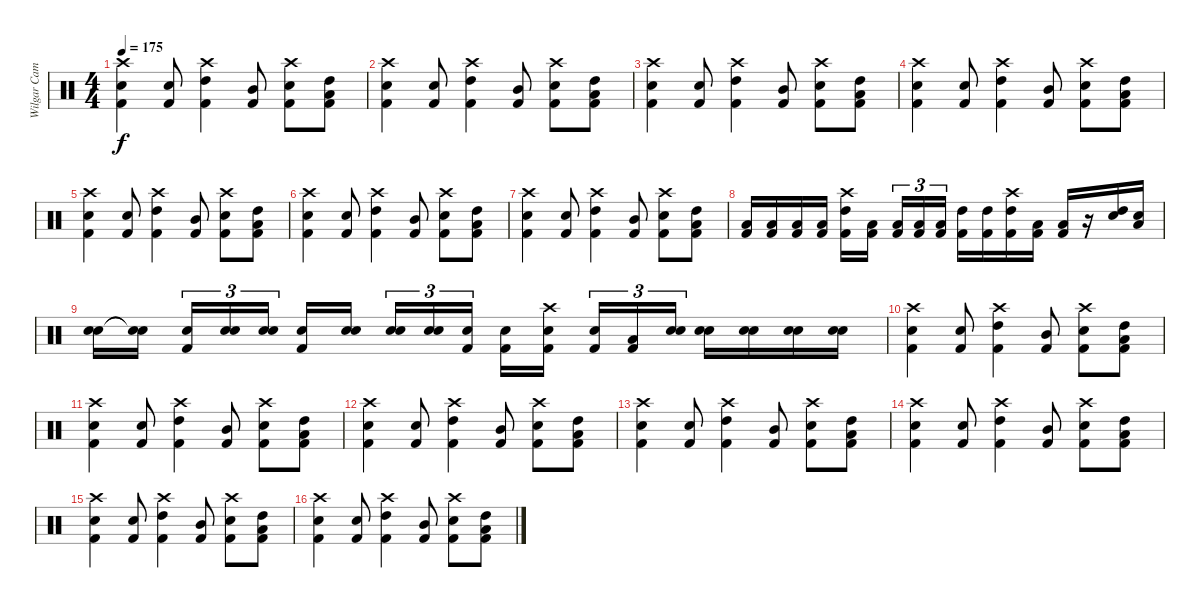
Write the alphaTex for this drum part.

\track ("Wilgar Campbell" "Wilgar Cam") {instrument percussion}
\staff {score}
\articulation defaults
\ts (4 4)
\tempo 175
\clef neutral
\ks c
("Crash high (hit)" "Electric Snare (hit)" "Kick (hit) 2").4{dy f} ("Snare (hit) 2" "Kick (hit) 2").8 ("Crash high (hit)" "High Tom (hit)" "Kick (hit) 2").4 ("Mid Tom (hit)" "Kick (hit) 2").8 ("Crash high (hit)" "Electric Snare (hit)" "Kick (hit) 2").8 ("High Tom (hit)" "Kick (hit) 2" "Low Tom (hit)").8 |
("Crash high (hit)" "Electric Snare (hit)" "Kick (hit) 2").4 ("Snare (hit) 2" "Kick (hit) 2").8 ("Crash high (hit)" "High Tom (hit)" "Kick (hit) 2").4 ("Mid Tom (hit)" "Kick (hit) 2").8 ("Crash high (hit)" "Electric Snare (hit)" "Kick (hit) 2").8 ("High Tom (hit)" "Kick (hit) 2" "Low Tom (hit)").8 |
("Crash high (hit)" "Electric Snare (hit)" "Kick (hit) 2").4 ("Snare (hit) 2" "Kick (hit) 2").8 ("Crash high (hit)" "High Tom (hit)" "Kick (hit) 2").4 ("Mid Tom (hit)" "Kick (hit) 2").8 ("Crash high (hit)" "Electric Snare (hit)" "Kick (hit) 2").8 ("High Tom (hit)" "Kick (hit) 2" "Low Tom (hit)").8 |
("Crash high (hit)" "Electric Snare (hit)" "Kick (hit) 2").4 ("Snare (hit) 2" "Kick (hit) 2").8 ("Crash high (hit)" "High Tom (hit)" "Kick (hit) 2").4 ("Mid Tom (hit)" "Kick (hit) 2").8 ("Crash high (hit)" "Electric Snare (hit)" "Kick (hit) 2").8 ("High Tom (hit)" "Kick (hit) 2" "Low Tom (hit)").8 |
("Crash high (hit)" "Electric Snare (hit)" "Kick (hit) 2").4 ("Snare (hit) 2" "Kick (hit) 2").8 ("Crash high (hit)" "High Tom (hit)" "Kick (hit) 2").4 ("Mid Tom (hit)" "Kick (hit) 2").8 ("Crash high (hit)" "Electric Snare (hit)" "Kick (hit) 2").8 ("High Tom (hit)" "Kick (hit) 2" "Low Tom (hit)").8 |
("Crash high (hit)" "Electric Snare (hit)" "Kick (hit) 2").4 ("Snare (hit) 2" "Kick (hit) 2").8 ("Crash high (hit)" "High Tom (hit)" "Kick (hit) 2").4 ("Mid Tom (hit)" "Kick (hit) 2").8 ("Crash high (hit)" "Electric Snare (hit)" "Kick (hit) 2").8 ("High Tom (hit)" "Kick (hit) 2" "Low Tom (hit)").8 |
("Crash high (hit)" "Electric Snare (hit)" "Kick (hit) 2").4 ("Snare (hit) 2" "Kick (hit) 2").8 ("Crash high (hit)" "High Tom (hit)" "Kick (hit) 2").4 ("Mid Tom (hit)" "Kick (hit) 2").8 ("Crash high (hit)" "Electric Snare (hit)" "Kick (hit) 2").8 ("High Tom (hit)" "Kick (hit) 2" "Low Tom (hit)").8 |
("Low Tom (hit)" "Kick (hit) 2").16 ("Low Tom (hit)" "Kick (hit) 2").16 ("Low Tom (hit)" "Kick (hit) 2").16 ("Low Tom (hit)" "Kick (hit) 2").16 ("Crash high (hit)" "High Tom (hit)" "Kick (hit) 2").16 ("Low Tom (hit)" "Kick (hit) 2").16 ("Low Tom (hit)" "Kick (hit) 2").16{tu (3 2)} ("Low Tom (hit)" "Kick (hit) 2").16{tu (3 2)} ("Low Tom (hit)" "Kick (hit) 2").16{tu (3 2)} ("High Tom (hit)" "Kick (hit) 2").16 ("High Tom (hit)" "Kick (hit) 2").16 ("Crash high (hit)" "High Tom (hit)" "Kick (hit) 2").16 ("Low Tom (hit)" "Kick (hit) 2").16 ("Low Tom (hit)" "Kick (hit) 2").16 r.16 ("High Tom (hit)" "Snare (hit) 2").16 ("Low Tom (hit)" "Snare (hit) 2").16 |
("Electric Snare (hit)" "Electric Snare (hit)").16 ("Electric Snare (hit)"{t} "Electric Snare (hit)"{t}).16 ("Snare (hit) 2" "Kick (hit) 2").16{tu (3 2)} ("Snare (hit) 2" "Electric Snare (hit)").16{tu (3 2)} ("Snare (hit) 2" "Electric Snare (hit)").16{tu (3 2)} ("Snare (hit) 2" "Kick (hit) 2").16 ("Snare (hit) 2" "Snare (hit) 2").16 ("Snare (hit) 2" "Snare (hit) 2").16{tu (3 2)} ("Snare (hit) 2" "Snare (hit) 2").16{tu (3 2)} ("Snare (hit) 2" "Kick (hit) 2").16{tu (3 2)} ("Snare (hit) 2" "Kick (hit) 2").16 ("Crash high (hit)" "Snare (hit) 2" "Kick (hit) 2").16 ("Snare (hit) 2" "Kick (hit) 2").16{tu (3 2)} ("Low Tom (hit)" "Kick (hit) 2").16{tu (3 2)} ("Electric Snare (hit)" "Electric Snare (hit)").16{tu (3 2)} ("Electric Snare (hit)" "Electric Snare (hit)").16 ("Electric Snare (hit)" "Electric Snare (hit)").16 ("Snare (hit) 2" "Snare (hit) 2").16 ("Snare (hit) 2" "Snare (hit) 2").16 |
("Crash high (hit)" "Electric Snare (hit)" "Kick (hit) 2").4 ("Snare (hit) 2" "Kick (hit) 2").8 ("Crash high (hit)" "High Tom (hit)" "Kick (hit) 2").4 ("Mid Tom (hit)" "Kick (hit) 2").8 ("Crash high (hit)" "Electric Snare (hit)" "Kick (hit) 2").8 ("High Tom (hit)" "Kick (hit) 2" "Low Tom (hit)").8 |
("Crash high (hit)" "Electric Snare (hit)" "Kick (hit) 2").4 ("Snare (hit) 2" "Kick (hit) 2").8 ("Crash high (hit)" "High Tom (hit)" "Kick (hit) 2").4 ("Mid Tom (hit)" "Kick (hit) 2").8 ("Crash high (hit)" "Electric Snare (hit)" "Kick (hit) 2").8 ("High Tom (hit)" "Kick (hit) 2" "Low Tom (hit)").8 |
("Crash high (hit)" "Electric Snare (hit)" "Kick (hit) 2").4 ("Snare (hit) 2" "Kick (hit) 2").8 ("Crash high (hit)" "High Tom (hit)" "Kick (hit) 2").4 ("Mid Tom (hit)" "Kick (hit) 2").8 ("Crash high (hit)" "Electric Snare (hit)" "Kick (hit) 2").8 ("High Tom (hit)" "Kick (hit) 2" "Low Tom (hit)").8 |
("Crash high (hit)" "Electric Snare (hit)" "Kick (hit) 2").4 ("Snare (hit) 2" "Kick (hit) 2").8 ("Crash high (hit)" "High Tom (hit)" "Kick (hit) 2").4 ("Mid Tom (hit)" "Kick (hit) 2").8 ("Crash high (hit)" "Electric Snare (hit)" "Kick (hit) 2").8 ("High Tom (hit)" "Kick (hit) 2" "Low Tom (hit)").8 |
("Crash high (hit)" "Electric Snare (hit)" "Kick (hit) 2").4 ("Snare (hit) 2" "Kick (hit) 2").8 ("Crash high (hit)" "High Tom (hit)" "Kick (hit) 2").4 ("Mid Tom (hit)" "Kick (hit) 2").8 ("Crash high (hit)" "Electric Snare (hit)" "Kick (hit) 2").8 ("High Tom (hit)" "Kick (hit) 2" "Low Tom (hit)").8 |
("Crash high (hit)" "Electric Snare (hit)" "Kick (hit) 2").4 ("Snare (hit) 2" "Kick (hit) 2").8 ("Crash high (hit)" "High Tom (hit)" "Kick (hit) 2").4 ("Mid Tom (hit)" "Kick (hit) 2").8 ("Crash high (hit)" "Electric Snare (hit)" "Kick (hit) 2").8 ("High Tom (hit)" "Kick (hit) 2" "Low Tom (hit)").8 |
("Crash high (hit)" "Electric Snare (hit)" "Kick (hit) 2").4 ("Snare (hit) 2" "Kick (hit) 2").8 ("Crash high (hit)" "High Tom (hit)" "Kick (hit) 2").4 ("Mid Tom (hit)" "Kick (hit) 2").8 ("Crash high (hit)" "Electric Snare (hit)" "Kick (hit) 2").8 ("High Tom (hit)" "Kick (hit) 2" "Low Tom (hit)").8
